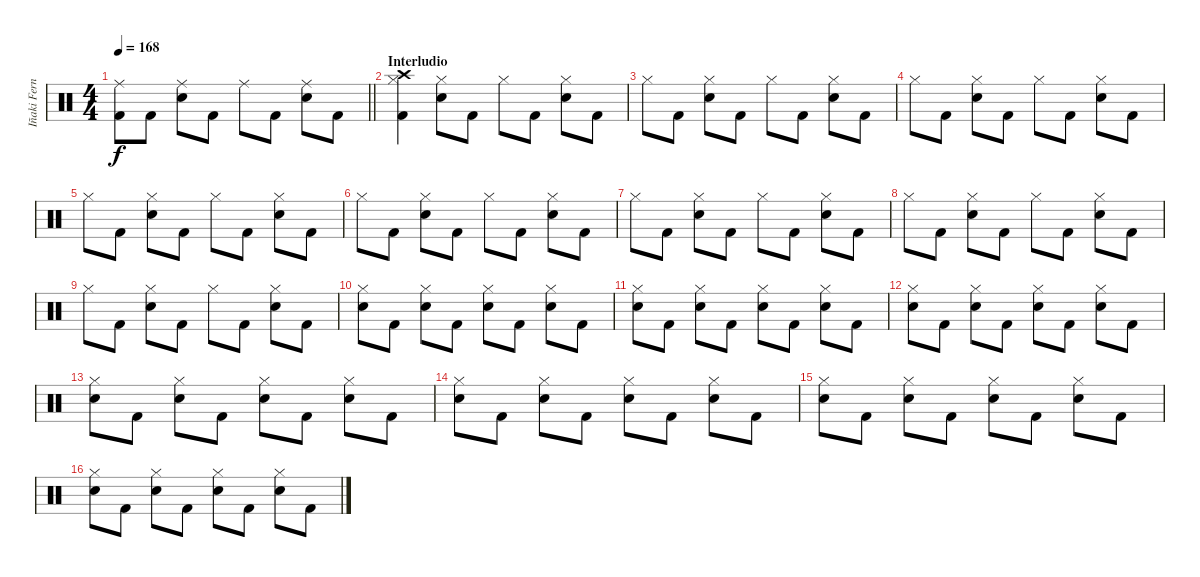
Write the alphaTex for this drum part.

\track ("Iñaki Fernández" "Iñaki Fern") {instrument percussion}
\staff {score}
\articulation defaults
\ts (4 4)
\tempo 168
\clef neutral
\barLineRight lightlight
\ks c
("Ride (middle)" "Kick (hit) 2").8{dy f} "Kick (hit) 2".8 ("Ride (middle)" "Snare (hit) 2").8 "Kick (hit) 2".8 "Ride (middle)".8 "Kick (hit) 2".8 ("Ride (middle)" "Snare (hit) 2").8 "Kick (hit) 2".8 |
\section ("" "Interludio")
("Hi-Hat (closed)" "Crash high (hit)" "Kick (hit) 2").4 ("Hi-Hat (closed)" "Snare (hit) 2").8 "Kick (hit) 2".8 "Hi-Hat (closed)".8 "Kick (hit) 2".8 ("Hi-Hat (closed)" "Snare (hit) 2").8 "Kick (hit) 2".8 |
"Hi-Hat (closed)".8 "Kick (hit) 2".8 ("Hi-Hat (closed)" "Snare (hit) 2").8 "Kick (hit) 2".8 "Hi-Hat (closed)".8 "Kick (hit) 2".8 ("Hi-Hat (closed)" "Snare (hit) 2").8 "Kick (hit) 2".8 |
"Hi-Hat (closed)".8 "Kick (hit) 2".8 ("Hi-Hat (closed)" "Snare (hit) 2").8 "Kick (hit) 2".8 "Hi-Hat (closed)".8 "Kick (hit) 2".8 ("Hi-Hat (closed)" "Snare (hit) 2").8 "Kick (hit) 2".8 |
"Hi-Hat (closed)".8 "Kick (hit) 2".8 ("Hi-Hat (closed)" "Snare (hit) 2").8 "Kick (hit) 2".8 "Hi-Hat (closed)".8 "Kick (hit) 2".8 ("Hi-Hat (closed)" "Snare (hit) 2").8 "Kick (hit) 2".8 |
"Hi-Hat (closed)".8 "Kick (hit) 2".8 ("Hi-Hat (closed)" "Snare (hit) 2").8 "Kick (hit) 2".8 "Hi-Hat (closed)".8 "Kick (hit) 2".8 ("Hi-Hat (closed)" "Snare (hit) 2").8 "Kick (hit) 2".8 |
"Hi-Hat (closed)".8 "Kick (hit) 2".8 ("Hi-Hat (closed)" "Snare (hit) 2").8 "Kick (hit) 2".8 "Hi-Hat (closed)".8 "Kick (hit) 2".8 ("Hi-Hat (closed)" "Snare (hit) 2").8 "Kick (hit) 2".8 |
"Hi-Hat (closed)".8 "Kick (hit) 2".8 ("Hi-Hat (closed)" "Snare (hit) 2").8 "Kick (hit) 2".8 "Hi-Hat (closed)".8 "Kick (hit) 2".8 ("Hi-Hat (closed)" "Snare (hit) 2").8 "Kick (hit) 2".8 |
"Hi-Hat (closed)".8 "Kick (hit) 2".8 ("Hi-Hat (closed)" "Snare (hit) 2").8 "Kick (hit) 2".8 "Hi-Hat (closed)".8 "Kick (hit) 2".8 ("Hi-Hat (closed)" "Snare (hit) 2").8 "Kick (hit) 2".8 |
("Hi-Hat (closed)" "Snare (hit) 2").8 "Kick (hit) 2".8 ("Hi-Hat (closed)" "Snare (hit) 2").8 "Kick (hit) 2".8 ("Hi-Hat (closed)" "Snare (hit) 2").8 "Kick (hit) 2".8 ("Hi-Hat (closed)" "Snare (hit) 2").8 "Kick (hit) 2".8 |
("Hi-Hat (closed)" "Snare (hit) 2").8 "Kick (hit) 2".8 ("Hi-Hat (closed)" "Snare (hit) 2").8 "Kick (hit) 2".8 ("Hi-Hat (closed)" "Snare (hit) 2").8 "Kick (hit) 2".8 ("Hi-Hat (closed)" "Snare (hit) 2").8 "Kick (hit) 2".8 |
("Hi-Hat (closed)" "Snare (hit) 2").8 "Kick (hit) 2".8 ("Hi-Hat (closed)" "Snare (hit) 2").8 "Kick (hit) 2".8 ("Hi-Hat (closed)" "Snare (hit) 2").8 "Kick (hit) 2".8 ("Hi-Hat (closed)" "Snare (hit) 2").8 "Kick (hit) 2".8 |
("Hi-Hat (closed)" "Snare (hit) 2").8 "Kick (hit) 2".8 ("Hi-Hat (closed)" "Snare (hit) 2").8 "Kick (hit) 2".8 ("Hi-Hat (closed)" "Snare (hit) 2").8 "Kick (hit) 2".8 ("Hi-Hat (closed)" "Snare (hit) 2").8 "Kick (hit) 2".8 |
("Hi-Hat (closed)" "Snare (hit) 2").8 "Kick (hit) 2".8 ("Hi-Hat (closed)" "Snare (hit) 2").8 "Kick (hit) 2".8 ("Hi-Hat (closed)" "Snare (hit) 2").8 "Kick (hit) 2".8 ("Hi-Hat (closed)" "Snare (hit) 2").8 "Kick (hit) 2".8 |
("Hi-Hat (closed)" "Snare (hit) 2").8 "Kick (hit) 2".8 ("Hi-Hat (closed)" "Snare (hit) 2").8 "Kick (hit) 2".8 ("Hi-Hat (closed)" "Snare (hit) 2").8 "Kick (hit) 2".8 ("Hi-Hat (closed)" "Snare (hit) 2").8 "Kick (hit) 2".8 |
("Hi-Hat (closed)" "Snare (hit) 2").8 "Kick (hit) 2".8 ("Hi-Hat (closed)" "Snare (hit) 2").8 "Kick (hit) 2".8 ("Hi-Hat (closed)" "Snare (hit) 2").8 "Kick (hit) 2".8 ("Hi-Hat (closed)" "Snare (hit) 2").8 "Kick (hit) 2".8
